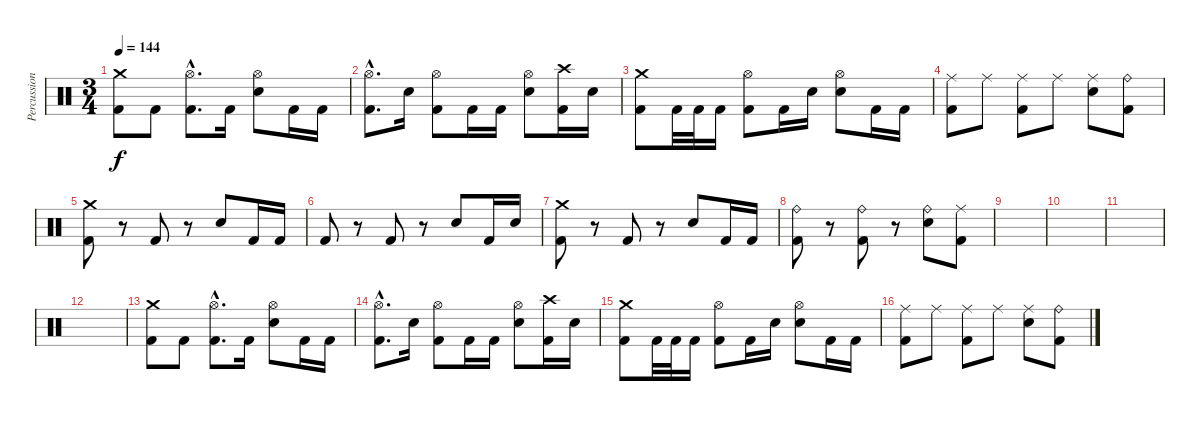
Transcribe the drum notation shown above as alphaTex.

\track ("Percussion" "Percussion") {instrument percussion}
\staff {score}
\articulation defaults
\ts (3 4)
\tempo 144
\clef neutral
\ks c
("Crash medium (hit)" "Kick (hit) 2").8{dy f} "Kick (hit) 2".8 ("Hi-Hat (open)"{hac} "Kick (hit) 2"{hac}).8{d} "Kick (hit) 2".16 ("Hi-Hat (open)" "Electric Snare (hit)").8 "Kick (hit) 2".16 "Kick (hit) 2".16 |
("Hi-Hat (open)"{hac} "Kick (hit) 2"{hac}).8{d} "Electric Snare (hit)".16 ("Hi-Hat (open)" "Kick (hit) 2").8 "Kick (hit) 2".16 "Kick (hit) 2".16 ("Hi-Hat (open)" "Electric Snare (hit)").8 ("Crash high (hit)" "Kick (hit) 2").16 "Electric Snare (hit)".16 |
("Crash medium (hit)" "Kick (hit) 2").8 "Kick (hit) 2".32 "Kick (hit) 2".32 "Kick (hit) 2".16 ("Hi-Hat (open)" "Kick (hit) 2").8 "Kick (hit) 2".16 "Electric Snare (hit)".16 ("Hi-Hat (open)" "Electric Snare (hit)").8 "Kick (hit) 2".16 "Kick (hit) 2".16 |
("Ride (middle)" "Kick (hit) 2").8 "Ride (middle)".8 ("Ride (middle)" "Kick (hit) 2").8 "Ride (middle)".8 ("Ride (middle)" "Electric Snare (hit)").8 ("Ride (bell)" "Kick (hit) 2").8 |
("Crash medium (hit)" "Kick (hit) 2").8 r.8 "Kick (hit) 2".8 r.8 "Electric Snare (hit)".8 "Kick (hit) 2".16 "Kick (hit) 2".16 |
"Kick (hit) 2".8 r.8 "Kick (hit) 2".8 r.8 "Electric Snare (hit)".8 "Kick (hit) 2".16 "Electric Snare (hit)".16 |
("Crash medium (hit)" "Kick (hit) 2").8 r.8 "Kick (hit) 2".8 r.8 "Electric Snare (hit)".8 "Kick (hit) 2".16 "Kick (hit) 2".16 |
("Ride (bell)" "Kick (hit) 2").8 r.8 ("Ride (bell)" "Kick (hit) 2").8 r.8 ("Ride (bell)" "Electric Snare (hit)").8 ("Ride (middle)" "Kick (hit) 2").8 |
|
|
|
|
("Crash medium (hit)" "Kick (hit) 2").8 "Kick (hit) 2".8 ("Hi-Hat (open)"{hac} "Kick (hit) 2"{hac}).8{d} "Kick (hit) 2".16 ("Hi-Hat (open)" "Electric Snare (hit)").8 "Kick (hit) 2".16 "Kick (hit) 2".16 |
("Hi-Hat (open)"{hac} "Kick (hit) 2"{hac}).8{d} "Electric Snare (hit)".16 ("Hi-Hat (open)" "Kick (hit) 2").8 "Kick (hit) 2".16 "Kick (hit) 2".16 ("Hi-Hat (open)" "Electric Snare (hit)").8 ("Crash high (hit)" "Kick (hit) 2").16 "Electric Snare (hit)".16 |
("Crash medium (hit)" "Kick (hit) 2").8 "Kick (hit) 2".32 "Kick (hit) 2".32 "Kick (hit) 2".16 ("Hi-Hat (open)" "Kick (hit) 2").8 "Kick (hit) 2".16 "Electric Snare (hit)".16 ("Hi-Hat (open)" "Electric Snare (hit)").8 "Kick (hit) 2".16 "Kick (hit) 2".16 |
("Ride (middle)" "Kick (hit) 2").8 "Ride (middle)".8 ("Ride (middle)" "Kick (hit) 2").8 "Ride (middle)".8 ("Ride (middle)" "Electric Snare (hit)").8 ("Ride (bell)" "Kick (hit) 2").8
